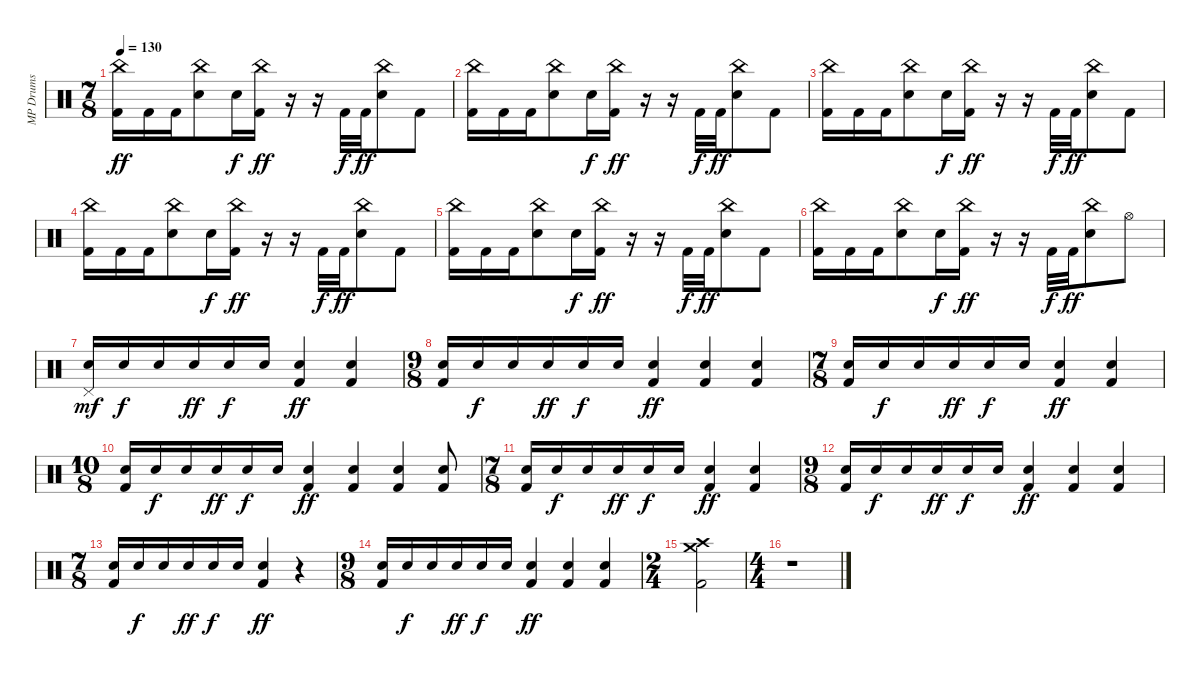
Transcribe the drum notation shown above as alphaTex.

\track ("MP Drums" "MP Drums") {instrument percussion}
\staff {score}
\articulation defaults
\ts (7 8)
\tempo 130
\clef neutral
\ks c
("China (hit)" "Kick (hit) 2").16{dy ff} "Kick (hit) 2".16 "Kick (hit) 2".16 ("China (hit)" "Snare (hit) 2").8 "Snare (hit) 2".16{dy f} ("China (hit)" "Kick (hit) 2").16{dy ff} r.16 r.16 "Kick (hit) 2".32{dy f} "Kick (hit) 2".32{dy ff} ("China (hit)" "Snare (hit) 2").8 "Kick (hit) 2".8 |
("China (hit)" "Kick (hit) 2").16 "Kick (hit) 2".16 "Kick (hit) 2".16 ("China (hit)" "Snare (hit) 2").8 "Snare (hit) 2".16{dy f} ("China (hit)" "Kick (hit) 2").16{dy ff} r.16 r.16 "Kick (hit) 2".32{dy f} "Kick (hit) 2".32{dy ff} ("China (hit)" "Snare (hit) 2").8 "Kick (hit) 2".8 |
("China (hit)" "Kick (hit) 2").16 "Kick (hit) 2".16 "Kick (hit) 2".16 ("China (hit)" "Snare (hit) 2").8 "Snare (hit) 2".16{dy f} ("China (hit)" "Kick (hit) 2").16{dy ff} r.16 r.16 "Kick (hit) 2".32{dy f} "Kick (hit) 2".32{dy ff} ("China (hit)" "Snare (hit) 2").8 "Kick (hit) 2".8 |
("China (hit)" "Kick (hit) 2").16 "Kick (hit) 2".16 "Kick (hit) 2".16 ("China (hit)" "Snare (hit) 2").8 "Snare (hit) 2".16{dy f} ("China (hit)" "Kick (hit) 2").16{dy ff} r.16 r.16 "Kick (hit) 2".32{dy f} "Kick (hit) 2".32{dy ff} ("China (hit)" "Snare (hit) 2").8 "Kick (hit) 2".8 |
("China (hit)" "Kick (hit) 2").16 "Kick (hit) 2".16 "Kick (hit) 2".16 ("China (hit)" "Snare (hit) 2").8 "Snare (hit) 2".16{dy f} ("China (hit)" "Kick (hit) 2").16{dy ff} r.16 r.16 "Kick (hit) 2".32{dy f} "Kick (hit) 2".32{dy ff} ("China (hit)" "Snare (hit) 2").8 "Kick (hit) 2".8 |
("China (hit)" "Kick (hit) 2").16 "Kick (hit) 2".16 "Kick (hit) 2".16 ("China (hit)" "Snare (hit) 2").8 "Snare (hit) 2".16{dy f} ("China (hit)" "Kick (hit) 2").16{dy ff} r.16 r.16 "Kick (hit) 2".32{dy f} "Kick (hit) 2".32{dy ff} ("China (hit)" "Snare (hit) 2").8 "Hi-Hat (open)".8 |
("Snare (hit) 2" "Pedal Hi-Hat (hit)").16{dy mf} "Snare (hit) 2".16{dy f} "Snare (hit) 2".16 "Snare (hit) 2".16{dy ff} "Snare (hit) 2".16{dy f} "Snare (hit) 2".16 ("Snare (hit) 2" "Kick (hit) 2").4{dy ff} ("Snare (hit) 2" "Kick (hit) 2").4 |
\ts (9 8)
("Snare (hit) 2" "Kick (hit) 2").16 "Snare (hit) 2".16{dy f} "Snare (hit) 2".16 "Snare (hit) 2".16{dy ff} "Snare (hit) 2".16{dy f} "Snare (hit) 2".16 ("Snare (hit) 2" "Kick (hit) 2").4{dy ff} ("Snare (hit) 2" "Kick (hit) 2").4 ("Snare (hit) 2" "Kick (hit) 2").4 |
\ts (7 8)
("Snare (hit) 2" "Kick (hit) 2").16 "Snare (hit) 2".16{dy f} "Snare (hit) 2".16 "Snare (hit) 2".16{dy ff} "Snare (hit) 2".16{dy f} "Snare (hit) 2".16 ("Snare (hit) 2" "Kick (hit) 2").4{dy ff} ("Snare (hit) 2" "Kick (hit) 2").4 |
\ts (10 8)
("Snare (hit) 2" "Kick (hit) 2").16 "Snare (hit) 2".16{dy f} "Snare (hit) 2".16 "Snare (hit) 2".16{dy ff} "Snare (hit) 2".16{dy f} "Snare (hit) 2".16 ("Snare (hit) 2" "Kick (hit) 2").4{dy ff} ("Snare (hit) 2" "Kick (hit) 2").4 ("Snare (hit) 2" "Kick (hit) 2").4 ("Snare (hit) 2" "Kick (hit) 2").8 |
\ts (7 8)
("Snare (hit) 2" "Kick (hit) 2").16 "Snare (hit) 2".16{dy f} "Snare (hit) 2".16 "Snare (hit) 2".16{dy ff} "Snare (hit) 2".16{dy f} "Snare (hit) 2".16 ("Snare (hit) 2" "Kick (hit) 2").4{dy ff} ("Snare (hit) 2" "Kick (hit) 2").4 |
\ts (9 8)
("Snare (hit) 2" "Kick (hit) 2").16 "Snare (hit) 2".16{dy f} "Snare (hit) 2".16 "Snare (hit) 2".16{dy ff} "Snare (hit) 2".16{dy f} "Snare (hit) 2".16 ("Snare (hit) 2" "Kick (hit) 2").4{dy ff} ("Snare (hit) 2" "Kick (hit) 2").4 ("Snare (hit) 2" "Kick (hit) 2").4 |
\ts (7 8)
("Snare (hit) 2" "Kick (hit) 2").16 "Snare (hit) 2".16{dy f} "Snare (hit) 2".16 "Snare (hit) 2".16{dy ff} "Snare (hit) 2".16{dy f} "Snare (hit) 2".16 ("Snare (hit) 2" "Kick (hit) 2").4{dy ff} r.4 |
\ts (9 8)
("Snare (hit) 2" "Kick (hit) 2").16 "Snare (hit) 2".16{dy f} "Snare (hit) 2".16 "Snare (hit) 2".16{dy ff} "Snare (hit) 2".16{dy f} "Snare (hit) 2".16 ("Snare (hit) 2" "Kick (hit) 2").4{dy ff} ("Snare (hit) 2" "Kick (hit) 2").4 ("Snare (hit) 2" "Kick (hit) 2").4 |
\ts (2 4)
("Crash high (hit)" "Crash medium (hit)" "Kick (hit) 2").2 |
\ts (4 4)
r.1
